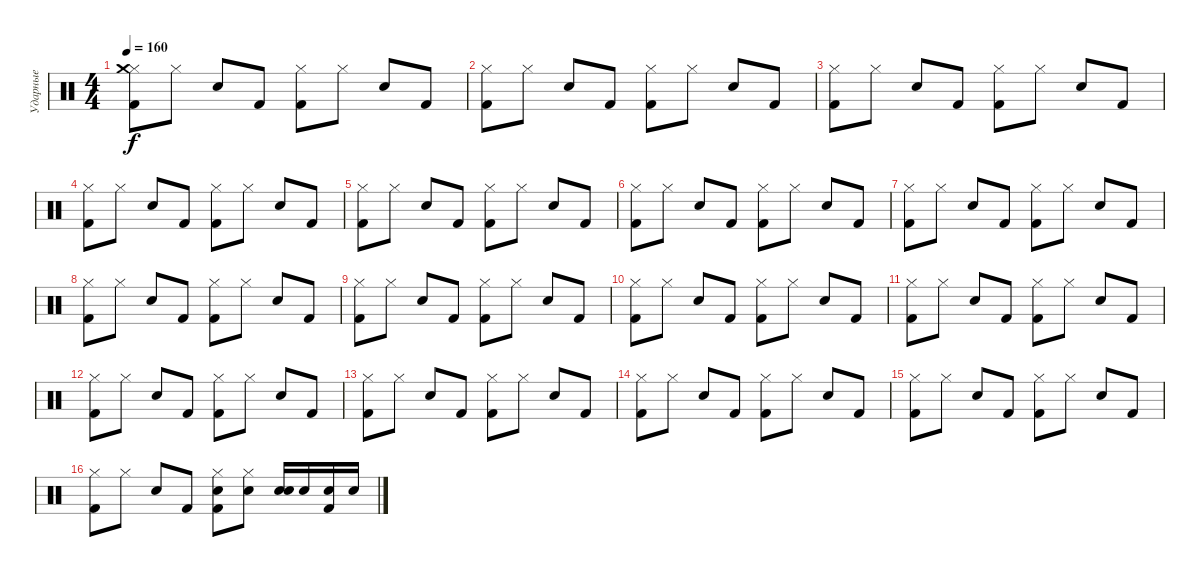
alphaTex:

\track ("Ударные" "Ударные") {instrument percussion}
\staff {score}
\articulation defaults
\ts (4 4)
\tempo 160
\clef neutral
\ks c
("Hi-Hat (closed)" "Kick (hit) 2" "Crash medium (hit)").8{dy f} "Hi-Hat (closed)".8 "Snare (hit) 2".8 "Kick (hit) 2".8 ("Hi-Hat (closed)" "Kick (hit) 2").8 "Hi-Hat (closed)".8 "Snare (hit) 2".8 "Kick (hit) 2".8 |
("Hi-Hat (closed)" "Kick (hit) 2").8 "Hi-Hat (closed)".8 "Snare (hit) 2".8 "Kick (hit) 2".8 ("Hi-Hat (closed)" "Kick (hit) 2").8 "Hi-Hat (closed)".8 "Snare (hit) 2".8 "Kick (hit) 2".8 |
("Hi-Hat (closed)" "Kick (hit) 2").8 "Hi-Hat (closed)".8 "Snare (hit) 2".8 "Kick (hit) 2".8 ("Hi-Hat (closed)" "Kick (hit) 2").8 "Hi-Hat (closed)".8 "Snare (hit) 2".8 "Kick (hit) 2".8 |
("Hi-Hat (closed)" "Kick (hit) 2").8 "Hi-Hat (closed)".8 "Snare (hit) 2".8 "Kick (hit) 2".8 ("Hi-Hat (closed)" "Kick (hit) 2").8 "Hi-Hat (closed)".8 "Snare (hit) 2".8 "Kick (hit) 2".8 |
("Hi-Hat (closed)" "Kick (hit) 2").8 "Hi-Hat (closed)".8 "Snare (hit) 2".8 "Kick (hit) 2".8 ("Hi-Hat (closed)" "Kick (hit) 2").8 "Hi-Hat (closed)".8 "Snare (hit) 2".8 "Kick (hit) 2".8 |
("Hi-Hat (closed)" "Kick (hit) 2").8 "Hi-Hat (closed)".8 "Snare (hit) 2".8 "Kick (hit) 2".8 ("Hi-Hat (closed)" "Kick (hit) 2").8 "Hi-Hat (closed)".8 "Snare (hit) 2".8 "Kick (hit) 2".8 |
("Hi-Hat (closed)" "Kick (hit) 2").8 "Hi-Hat (closed)".8 "Snare (hit) 2".8 "Kick (hit) 2".8 ("Hi-Hat (closed)" "Kick (hit) 2").8 "Hi-Hat (closed)".8 "Snare (hit) 2".8 "Kick (hit) 2".8 |
("Hi-Hat (closed)" "Kick (hit) 2").8 "Hi-Hat (closed)".8 "Snare (hit) 2".8 "Kick (hit) 2".8 ("Hi-Hat (closed)" "Kick (hit) 2").8 "Hi-Hat (closed)".8 "Snare (hit) 2".8 "Kick (hit) 2".8 |
("Hi-Hat (closed)" "Kick (hit) 2").8 "Hi-Hat (closed)".8 "Snare (hit) 2".8 "Kick (hit) 2".8 ("Hi-Hat (closed)" "Kick (hit) 2").8 "Hi-Hat (closed)".8 "Snare (hit) 2".8 "Kick (hit) 2".8 |
("Hi-Hat (closed)" "Kick (hit) 2").8 "Hi-Hat (closed)".8 "Snare (hit) 2".8 "Kick (hit) 2".8 ("Hi-Hat (closed)" "Kick (hit) 2").8 "Hi-Hat (closed)".8 "Snare (hit) 2".8 "Kick (hit) 2".8 |
("Hi-Hat (closed)" "Kick (hit) 2").8 "Hi-Hat (closed)".8 "Snare (hit) 2".8 "Kick (hit) 2".8 ("Hi-Hat (closed)" "Kick (hit) 2").8 "Hi-Hat (closed)".8 "Snare (hit) 2".8 "Kick (hit) 2".8 |
("Hi-Hat (closed)" "Kick (hit) 2").8 "Hi-Hat (closed)".8 "Snare (hit) 2".8 "Kick (hit) 2".8 ("Hi-Hat (closed)" "Kick (hit) 2").8 "Hi-Hat (closed)".8 "Snare (hit) 2".8 "Kick (hit) 2".8 |
("Hi-Hat (closed)" "Kick (hit) 2").8 "Hi-Hat (closed)".8 "Snare (hit) 2".8 "Kick (hit) 2".8 ("Hi-Hat (closed)" "Kick (hit) 2").8 "Hi-Hat (closed)".8 "Snare (hit) 2".8 "Kick (hit) 2".8 |
("Hi-Hat (closed)" "Kick (hit) 2").8 "Hi-Hat (closed)".8 "Snare (hit) 2".8 "Kick (hit) 2".8 ("Hi-Hat (closed)" "Kick (hit) 2").8 "Hi-Hat (closed)".8 "Snare (hit) 2".8 "Kick (hit) 2".8 |
("Hi-Hat (closed)" "Kick (hit) 2").8 "Hi-Hat (closed)".8 "Snare (hit) 2".8 "Kick (hit) 2".8 ("Hi-Hat (closed)" "Kick (hit) 2").8 "Hi-Hat (closed)".8 "Snare (hit) 2".8 "Kick (hit) 2".8 |
("Hi-Hat (closed)" "Kick (hit) 2").8 "Hi-Hat (closed)".8 "Snare (hit) 2".8 "Kick (hit) 2".8 ("Hi-Hat (closed)" "Kick (hit) 2" "Snare (hit) 2").8 ("Hi-Hat (closed)" "Snare (hit) 2").8 ("Snare (hit) 2" "Snare (hit) 2").16 "Snare (hit) 2".16 ("Kick (hit) 2" "Snare (hit) 2").16 "Snare (hit) 2".16
